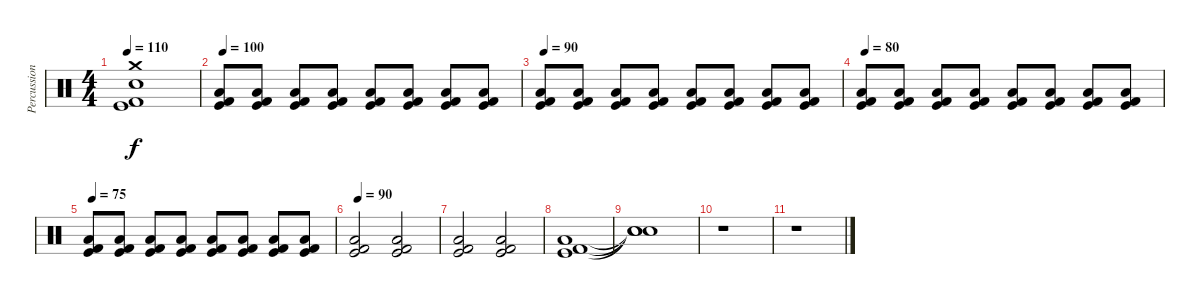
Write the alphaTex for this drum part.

\track ("Percussion" "Percussion") {instrument percussion}
\staff {score}
\articulation defaults
\ts (4 4)
\tempo 110
\clef neutral
\ks c
("Crash medium (hit)" "Snare (hit) 2" "Kick (hit) 2" "Kick (hit)").1{dy f} |
\tempo 100
("Low Floor Tom (hit)" "Kick (hit) 2" "Kick (hit)").8 ("Low Floor Tom (hit)" "Kick (hit) 2" "Kick (hit)").8 ("Low Floor Tom (hit)" "Kick (hit) 2" "Kick (hit)").8 ("Low Floor Tom (hit)" "Kick (hit) 2" "Kick (hit)").8 ("Low Floor Tom (hit)" "Kick (hit) 2" "Kick (hit)").8 ("Low Floor Tom (hit)" "Kick (hit) 2" "Kick (hit)").8 ("Low Floor Tom (hit)" "Kick (hit) 2" "Kick (hit)").8 ("Low Floor Tom (hit)" "Kick (hit) 2" "Kick (hit)").8 |
\tempo 90
("Low Floor Tom (hit)" "Kick (hit) 2" "Kick (hit)").8 ("Low Floor Tom (hit)" "Kick (hit) 2" "Kick (hit)").8 ("Low Floor Tom (hit)" "Kick (hit) 2" "Kick (hit)").8 ("Low Floor Tom (hit)" "Kick (hit) 2" "Kick (hit)").8 ("Low Floor Tom (hit)" "Kick (hit) 2" "Kick (hit)").8 ("Low Floor Tom (hit)" "Kick (hit) 2" "Kick (hit)").8 ("Low Floor Tom (hit)" "Kick (hit) 2" "Kick (hit)").8 ("Low Floor Tom (hit)" "Kick (hit) 2" "Kick (hit)").8 |
\tempo 80
("Low Floor Tom (hit)" "Kick (hit) 2" "Kick (hit)").8 ("Low Floor Tom (hit)" "Kick (hit) 2" "Kick (hit)").8 ("Low Floor Tom (hit)" "Kick (hit) 2" "Kick (hit)").8 ("Low Floor Tom (hit)" "Kick (hit) 2" "Kick (hit)").8 ("Low Floor Tom (hit)" "Kick (hit) 2" "Kick (hit)").8 ("Low Floor Tom (hit)" "Kick (hit) 2" "Kick (hit)").8 ("Low Floor Tom (hit)" "Kick (hit) 2" "Kick (hit)").8 ("Low Floor Tom (hit)" "Kick (hit) 2" "Kick (hit)").8 |
\tempo 75
("Low Floor Tom (hit)" "Kick (hit) 2" "Kick (hit)").8 ("Low Floor Tom (hit)" "Kick (hit) 2" "Kick (hit)").8 ("Low Floor Tom (hit)" "Kick (hit) 2" "Kick (hit)").8 ("Low Floor Tom (hit)" "Kick (hit) 2" "Kick (hit)").8 ("Low Floor Tom (hit)" "Kick (hit) 2" "Kick (hit)").8 ("Low Floor Tom (hit)" "Kick (hit) 2" "Kick (hit)").8 ("Low Floor Tom (hit)" "Kick (hit) 2" "Kick (hit)").8 ("Low Floor Tom (hit)" "Kick (hit) 2" "Kick (hit)").8 |
\tempo 90
("Low Floor Tom (hit)" "Kick (hit) 2" "Kick (hit)").2 ("Low Floor Tom (hit)" "Kick (hit) 2" "Kick (hit)").2 |
("Low Floor Tom (hit)" "Kick (hit) 2" "Kick (hit)").2 ("Low Floor Tom (hit)" "Kick (hit) 2" "Kick (hit)").2 |
("Low Floor Tom (hit)" "Kick (hit) 2" "Kick (hit)").1 |
("Snare (hit)"{t} "Snare (hit)"{t} "Snare (hit)"{t}).1 |
r.1 |
r.1
